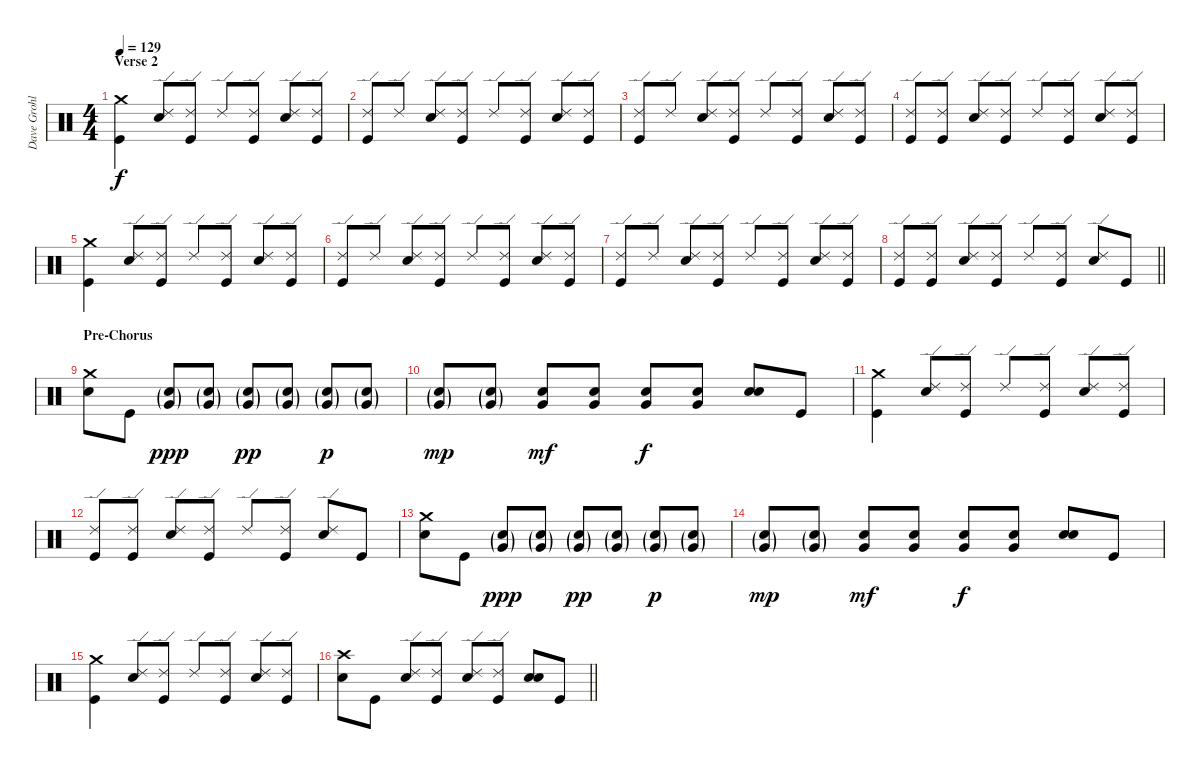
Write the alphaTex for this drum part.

\track ("Dave Grohl" "Dave Grohl") {instrument percussion}
\staff {score}
\articulation defaults
\ts (4 4)
\section ("" "Verse 2")
\tempo 129
\clef neutral
\ks c
("Crash medium (hit)" "Kick (hit)").4{dy f} ("Ride (edge) 2" "Electric Snare (hit)").8 ("Ride (edge) 2" "Kick (hit)").8 "Ride (edge) 2".8 ("Ride (edge) 2" "Kick (hit)").8 ("Ride (edge) 2" "Electric Snare (hit)").8 ("Ride (edge) 2" "Kick (hit)").8 |
("Ride (edge) 2" "Kick (hit)").8 "Ride (edge) 2".8 ("Ride (edge) 2" "Electric Snare (hit)").8 ("Ride (edge) 2" "Kick (hit)").8 "Ride (edge) 2".8 ("Ride (edge) 2" "Kick (hit)").8 ("Ride (edge) 2" "Electric Snare (hit)").8 ("Ride (edge) 2" "Kick (hit)").8 |
("Ride (edge) 2" "Kick (hit)").8 "Ride (edge) 2".8 ("Ride (edge) 2" "Electric Snare (hit)").8 ("Ride (edge) 2" "Kick (hit)").8 "Ride (edge) 2".8 ("Ride (edge) 2" "Kick (hit)").8 ("Ride (edge) 2" "Electric Snare (hit)").8 ("Ride (edge) 2" "Kick (hit)").8 |
("Ride (edge) 2" "Kick (hit)").8 ("Ride (edge) 2" "Kick (hit)").8 ("Ride (edge) 2" "Electric Snare (hit)").8 ("Ride (edge) 2" "Kick (hit)").8 "Ride (edge) 2".8 ("Ride (edge) 2" "Kick (hit)").8 ("Ride (edge) 2" "Electric Snare (hit)").8 ("Ride (edge) 2" "Kick (hit)").8 |
("Crash medium (hit)" "Kick (hit)").4 ("Ride (edge) 2" "Electric Snare (hit)").8 ("Ride (edge) 2" "Kick (hit)").8 "Ride (edge) 2".8 ("Ride (edge) 2" "Kick (hit)").8 ("Ride (edge) 2" "Electric Snare (hit)").8 ("Ride (edge) 2" "Kick (hit)").8 |
("Ride (edge) 2" "Kick (hit)").8 "Ride (edge) 2".8 ("Ride (edge) 2" "Electric Snare (hit)").8 ("Ride (edge) 2" "Kick (hit)").8 "Ride (edge) 2".8 ("Ride (edge) 2" "Kick (hit)").8 ("Ride (edge) 2" "Electric Snare (hit)").8 ("Ride (edge) 2" "Kick (hit)").8 |
("Ride (edge) 2" "Kick (hit)").8 "Ride (edge) 2".8 ("Ride (edge) 2" "Electric Snare (hit)").8 ("Ride (edge) 2" "Kick (hit)").8 "Ride (edge) 2".8 ("Ride (edge) 2" "Kick (hit)").8 ("Ride (edge) 2" "Electric Snare (hit)").8 ("Ride (edge) 2" "Kick (hit)").8 |
\barLineRight lightlight
("Ride (edge) 2" "Kick (hit)").8 ("Ride (edge) 2" "Kick (hit)").8 ("Ride (edge) 2" "Electric Snare (hit)").8 ("Ride (edge) 2" "Kick (hit)").8 "Ride (edge) 2".8 ("Ride (edge) 2" "Kick (hit)").8 ("Ride (edge) 2" "Electric Snare (hit)").8 "Kick (hit)".8 |
\section ("" "Pre-Chorus")
("Crash medium (hit)" "Electric Snare (hit)").8 "Kick (hit)".8 ("Electric Snare (hit)"{g} "Very Low Tom (hit)"{g}).8{dy ppp} ("Electric Snare (hit)"{g} "Very Low Tom (hit)"{g}).8 ("Electric Snare (hit)"{g} "Very Low Tom (hit)"{g}).8{dy pp} ("Electric Snare (hit)"{g} "Very Low Tom (hit)"{g}).8 ("Electric Snare (hit)"{g} "Very Low Tom (hit)"{g}).8{dy p} ("Electric Snare (hit)"{g} "Very Low Tom (hit)"{g}).8 |
("Electric Snare (hit)"{g} "Very Low Tom (hit)"{g}).8{dy mp} ("Electric Snare (hit)"{g} "Very Low Tom (hit)"{g}).8 ("Electric Snare (hit)" "Very Low Tom (hit)").8{dy mf} ("Electric Snare (hit)" "Very Low Tom (hit)").8 ("Electric Snare (hit)" "Very Low Tom (hit)").8{dy f} ("Electric Snare (hit)" "Very Low Tom (hit)").8 ("Electric Snare (hit)" "Electric Snare (hit)").8{bd 120} "Kick (hit)".8 |
("Crash medium (hit)" "Kick (hit)").4 ("Ride (edge) 2" "Electric Snare (hit)").8 ("Ride (edge) 2" "Kick (hit)").8 "Ride (edge) 2".8 ("Ride (edge) 2" "Kick (hit)").8 ("Ride (edge) 2" "Electric Snare (hit)").8 ("Ride (edge) 2" "Kick (hit)").8 |
("Ride (edge) 2" "Kick (hit)").8 ("Ride (edge) 2" "Kick (hit)").8 ("Ride (edge) 2" "Electric Snare (hit)").8 ("Ride (edge) 2" "Kick (hit)").8 "Ride (edge) 2".8 ("Ride (edge) 2" "Kick (hit)").8 ("Ride (edge) 2" "Electric Snare (hit)").8 "Kick (hit)".8 |
("Crash medium (hit)" "Electric Snare (hit)").8 "Kick (hit)".8 ("Electric Snare (hit)"{g} "Very Low Tom (hit)"{g}).8{dy ppp} ("Electric Snare (hit)"{g} "Very Low Tom (hit)"{g}).8 ("Electric Snare (hit)"{g} "Very Low Tom (hit)"{g}).8{dy pp} ("Electric Snare (hit)"{g} "Very Low Tom (hit)"{g}).8 ("Electric Snare (hit)"{g} "Very Low Tom (hit)"{g}).8{dy p} ("Electric Snare (hit)"{g} "Very Low Tom (hit)"{g}).8 |
("Electric Snare (hit)"{g} "Very Low Tom (hit)"{g}).8{dy mp} ("Electric Snare (hit)"{g} "Very Low Tom (hit)"{g}).8 ("Electric Snare (hit)" "Very Low Tom (hit)").8{dy mf} ("Electric Snare (hit)" "Very Low Tom (hit)").8 ("Electric Snare (hit)" "Very Low Tom (hit)").8{dy f} ("Electric Snare (hit)" "Very Low Tom (hit)").8 ("Electric Snare (hit)" "Electric Snare (hit)").8{bd 120} "Kick (hit)".8 |
("Crash medium (hit)" "Kick (hit)").4 ("Ride (edge) 2" "Electric Snare (hit)").8 ("Ride (edge) 2" "Kick (hit)").8 "Ride (edge) 2".8 ("Ride (edge) 2" "Kick (hit)").8 ("Ride (edge) 2" "Electric Snare (hit)").8 ("Ride (edge) 2" "Kick (hit)").8 |
\barLineRight lightlight
("Crash high (hit)" "Electric Snare (hit)").8 "Kick (hit)".8 ("Ride (edge) 2" "Electric Snare (hit)").8 ("Ride (edge) 2" "Kick (hit)").8 ("Ride (edge) 2" "Electric Snare (hit)").8 ("Ride (edge) 2" "Kick (hit)").8 ("Electric Snare (hit)" "Electric Snare (hit)").8{bd 120} "Kick (hit)".8
